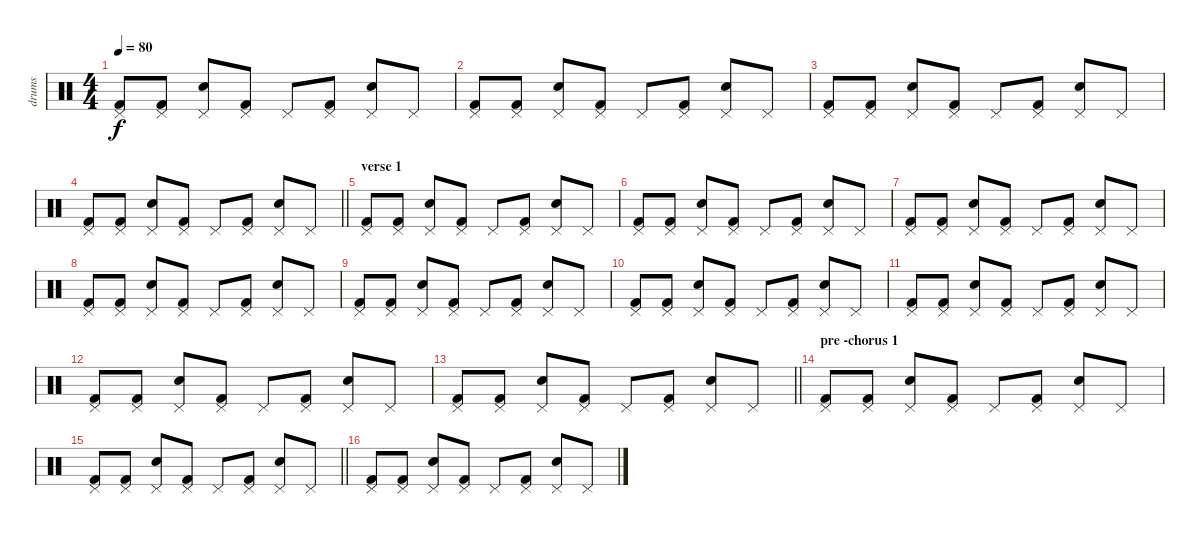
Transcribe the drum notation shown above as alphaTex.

\track ("drums" "drums") {instrument percussion}
\staff {score}
\articulation defaults
\ts (4 4)
\tempo 80
\clef neutral
\ks c
("Kick (hit) 2" "Pedal Hi-Hat (hit)").8{dy f} ("Kick (hit) 2" "Pedal Hi-Hat (hit)").8 ("Electric Snare (hit)" "Pedal Hi-Hat (hit)").8 ("Kick (hit) 2" "Pedal Hi-Hat (hit)").8 "Pedal Hi-Hat (hit)".8 ("Kick (hit) 2" "Pedal Hi-Hat (hit)").8 ("Electric Snare (hit)" "Pedal Hi-Hat (hit)").8 "Pedal Hi-Hat (hit)".8 |
("Kick (hit) 2" "Pedal Hi-Hat (hit)").8 ("Kick (hit) 2" "Pedal Hi-Hat (hit)").8 ("Electric Snare (hit)" "Pedal Hi-Hat (hit)").8 ("Kick (hit) 2" "Pedal Hi-Hat (hit)").8 "Pedal Hi-Hat (hit)".8 ("Kick (hit) 2" "Pedal Hi-Hat (hit)").8 ("Electric Snare (hit)" "Pedal Hi-Hat (hit)").8 "Pedal Hi-Hat (hit)".8 |
("Kick (hit) 2" "Pedal Hi-Hat (hit)").8 ("Kick (hit) 2" "Pedal Hi-Hat (hit)").8 ("Electric Snare (hit)" "Pedal Hi-Hat (hit)").8 ("Kick (hit) 2" "Pedal Hi-Hat (hit)").8 "Pedal Hi-Hat (hit)".8 ("Kick (hit) 2" "Pedal Hi-Hat (hit)").8 ("Electric Snare (hit)" "Pedal Hi-Hat (hit)").8 "Pedal Hi-Hat (hit)".8 |
\barLineRight lightlight
("Kick (hit) 2" "Pedal Hi-Hat (hit)").8 ("Kick (hit) 2" "Pedal Hi-Hat (hit)").8 ("Electric Snare (hit)" "Pedal Hi-Hat (hit)").8 ("Kick (hit) 2" "Pedal Hi-Hat (hit)").8 "Pedal Hi-Hat (hit)".8 ("Kick (hit) 2" "Pedal Hi-Hat (hit)").8 ("Electric Snare (hit)" "Pedal Hi-Hat (hit)").8 "Pedal Hi-Hat (hit)".8 |
\section ("" "verse 1")
("Kick (hit) 2" "Pedal Hi-Hat (hit)").8 ("Kick (hit) 2" "Pedal Hi-Hat (hit)").8 ("Electric Snare (hit)" "Pedal Hi-Hat (hit)").8 ("Kick (hit) 2" "Pedal Hi-Hat (hit)").8 "Pedal Hi-Hat (hit)".8 ("Kick (hit) 2" "Pedal Hi-Hat (hit)").8 ("Electric Snare (hit)" "Pedal Hi-Hat (hit)").8 "Pedal Hi-Hat (hit)".8 |
("Kick (hit) 2" "Pedal Hi-Hat (hit)").8 ("Kick (hit) 2" "Pedal Hi-Hat (hit)").8 ("Electric Snare (hit)" "Pedal Hi-Hat (hit)").8 ("Kick (hit) 2" "Pedal Hi-Hat (hit)").8 "Pedal Hi-Hat (hit)".8 ("Kick (hit) 2" "Pedal Hi-Hat (hit)").8 ("Electric Snare (hit)" "Pedal Hi-Hat (hit)").8 "Pedal Hi-Hat (hit)".8 |
("Kick (hit) 2" "Pedal Hi-Hat (hit)").8 ("Kick (hit) 2" "Pedal Hi-Hat (hit)").8 ("Electric Snare (hit)" "Pedal Hi-Hat (hit)").8 ("Kick (hit) 2" "Pedal Hi-Hat (hit)").8 "Pedal Hi-Hat (hit)".8 ("Kick (hit) 2" "Pedal Hi-Hat (hit)").8 ("Electric Snare (hit)" "Pedal Hi-Hat (hit)").8 "Pedal Hi-Hat (hit)".8 |
("Kick (hit) 2" "Pedal Hi-Hat (hit)").8 ("Kick (hit) 2" "Pedal Hi-Hat (hit)").8 ("Electric Snare (hit)" "Pedal Hi-Hat (hit)").8 ("Kick (hit) 2" "Pedal Hi-Hat (hit)").8 "Pedal Hi-Hat (hit)".8 ("Kick (hit) 2" "Pedal Hi-Hat (hit)").8 ("Electric Snare (hit)" "Pedal Hi-Hat (hit)").8 "Pedal Hi-Hat (hit)".8 |
("Kick (hit) 2" "Pedal Hi-Hat (hit)").8 ("Kick (hit) 2" "Pedal Hi-Hat (hit)").8 ("Electric Snare (hit)" "Pedal Hi-Hat (hit)").8 ("Kick (hit) 2" "Pedal Hi-Hat (hit)").8 "Pedal Hi-Hat (hit)".8 ("Kick (hit) 2" "Pedal Hi-Hat (hit)").8 ("Electric Snare (hit)" "Pedal Hi-Hat (hit)").8 "Pedal Hi-Hat (hit)".8 |
("Kick (hit) 2" "Pedal Hi-Hat (hit)").8 ("Kick (hit) 2" "Pedal Hi-Hat (hit)").8 ("Electric Snare (hit)" "Pedal Hi-Hat (hit)").8 ("Kick (hit) 2" "Pedal Hi-Hat (hit)").8 "Pedal Hi-Hat (hit)".8 ("Kick (hit) 2" "Pedal Hi-Hat (hit)").8 ("Electric Snare (hit)" "Pedal Hi-Hat (hit)").8 "Pedal Hi-Hat (hit)".8 |
("Kick (hit) 2" "Pedal Hi-Hat (hit)").8 ("Kick (hit) 2" "Pedal Hi-Hat (hit)").8 ("Electric Snare (hit)" "Pedal Hi-Hat (hit)").8 ("Kick (hit) 2" "Pedal Hi-Hat (hit)").8 "Pedal Hi-Hat (hit)".8 ("Kick (hit) 2" "Pedal Hi-Hat (hit)").8 ("Electric Snare (hit)" "Pedal Hi-Hat (hit)").8 "Pedal Hi-Hat (hit)".8 |
("Kick (hit) 2" "Pedal Hi-Hat (hit)").8 ("Kick (hit) 2" "Pedal Hi-Hat (hit)").8 ("Electric Snare (hit)" "Pedal Hi-Hat (hit)").8 ("Kick (hit) 2" "Pedal Hi-Hat (hit)").8 "Pedal Hi-Hat (hit)".8 ("Kick (hit) 2" "Pedal Hi-Hat (hit)").8 ("Electric Snare (hit)" "Pedal Hi-Hat (hit)").8 "Pedal Hi-Hat (hit)".8 |
\barLineRight lightlight
("Kick (hit) 2" "Pedal Hi-Hat (hit)").8 ("Kick (hit) 2" "Pedal Hi-Hat (hit)").8 ("Electric Snare (hit)" "Pedal Hi-Hat (hit)").8 ("Kick (hit) 2" "Pedal Hi-Hat (hit)").8 "Pedal Hi-Hat (hit)".8 ("Kick (hit) 2" "Pedal Hi-Hat (hit)").8 ("Electric Snare (hit)" "Pedal Hi-Hat (hit)").8 "Pedal Hi-Hat (hit)".8 |
\section ("" "pre -chorus 1")
("Kick (hit) 2" "Pedal Hi-Hat (hit)").8 ("Kick (hit) 2" "Pedal Hi-Hat (hit)").8 ("Electric Snare (hit)" "Pedal Hi-Hat (hit)").8 ("Kick (hit) 2" "Pedal Hi-Hat (hit)").8 "Pedal Hi-Hat (hit)".8 ("Kick (hit) 2" "Pedal Hi-Hat (hit)").8 ("Electric Snare (hit)" "Pedal Hi-Hat (hit)").8 "Pedal Hi-Hat (hit)".8 |
\barLineRight lightlight
("Kick (hit) 2" "Pedal Hi-Hat (hit)").8 ("Kick (hit) 2" "Pedal Hi-Hat (hit)").8 ("Electric Snare (hit)" "Pedal Hi-Hat (hit)").8 ("Kick (hit) 2" "Pedal Hi-Hat (hit)").8 "Pedal Hi-Hat (hit)".8 ("Kick (hit) 2" "Pedal Hi-Hat (hit)").8 ("Electric Snare (hit)" "Pedal Hi-Hat (hit)").8 "Pedal Hi-Hat (hit)".8 |
("Kick (hit) 2" "Pedal Hi-Hat (hit)").8 ("Kick (hit) 2" "Pedal Hi-Hat (hit)").8 ("Electric Snare (hit)" "Pedal Hi-Hat (hit)").8 ("Kick (hit) 2" "Pedal Hi-Hat (hit)").8 "Pedal Hi-Hat (hit)".8 ("Kick (hit) 2" "Pedal Hi-Hat (hit)").8 ("Electric Snare (hit)" "Pedal Hi-Hat (hit)").8 "Pedal Hi-Hat (hit)".8
